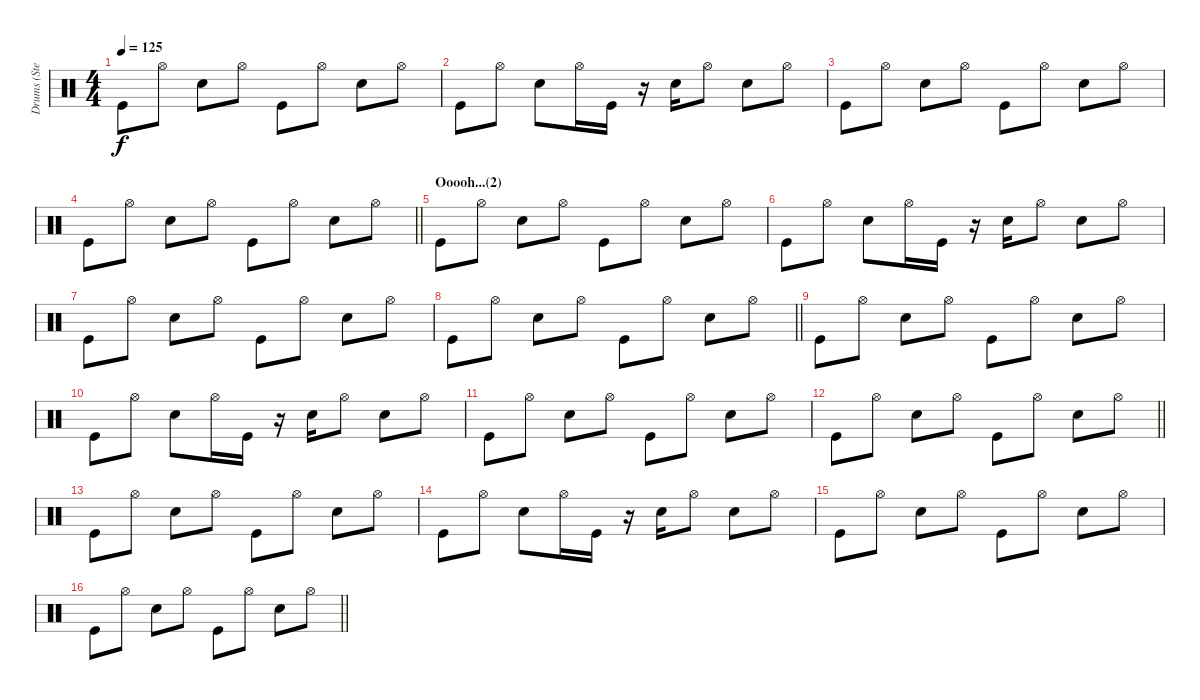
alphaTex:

\track ("Drums (Stephen Morris)" "Drums (Ste") {instrument percussion}
\staff {score}
\articulation defaults
\ts (4 4)
\tempo 125
\clef neutral
\ks c "Kick (hit)".8{dy f} "Hi-Hat (open)".8 "Electric Snare (hit)".8 "Hi-Hat (open)".8 "Kick (hit)".8 "Hi-Hat (open)".8 "Electric Snare (hit)".8 "Hi-Hat (open)".8
|
"Kick (hit)".8 "Hi-Hat (open)".8 "Electric Snare (hit)".8 "Hi-Hat (open)".16 "Kick (hit)".16 r.16 "Electric Snare (hit)".16 "Hi-Hat (open)".8 "Electric Snare (hit)".8 "Hi-Hat (open)".8 |
"Kick (hit)".8 "Hi-Hat (open)".8 "Electric Snare (hit)".8 "Hi-Hat (open)".8 "Kick (hit)".8 "Hi-Hat (open)".8 "Electric Snare (hit)".8 "Hi-Hat (open)".8 |
\barLineRight lightlight "Kick (hit)".8 "Hi-Hat (open)".8 "Electric Snare (hit)".8 "Hi-Hat (open)".8 "Kick (hit)".8 "Hi-Hat (open)".8 "Electric Snare (hit)".8 "Hi-Hat (open)".8
|
\section ("" "Ooooh...(2)")
"Kick (hit)".8 "Hi-Hat (open)".8 "Electric Snare (hit)".8 "Hi-Hat (open)".8 "Kick (hit)".8 "Hi-Hat (open)".8 "Electric Snare (hit)".8 "Hi-Hat (open)".8 |
"Kick (hit)".8 "Hi-Hat (open)".8 "Electric Snare (hit)".8 "Hi-Hat (open)".16 "Kick (hit)".16 r.16 "Electric Snare (hit)".16 "Hi-Hat (open)".8 "Electric Snare (hit)".8 "Hi-Hat (open)".8 |
"Kick (hit)".8 "Hi-Hat (open)".8 "Electric Snare (hit)".8 "Hi-Hat (open)".8 "Kick (hit)".8 "Hi-Hat (open)".8 "Electric Snare (hit)".8 "Hi-Hat (open)".8 |
\barLineRight lightlight "Kick (hit)".8 "Hi-Hat (open)".8 "Electric Snare (hit)".8 "Hi-Hat (open)".8 "Kick (hit)".8 "Hi-Hat (open)".8 "Electric Snare (hit)".8 "Hi-Hat (open)".8
|
"Kick (hit)".8 "Hi-Hat (open)".8 "Electric Snare (hit)".8 "Hi-Hat (open)".8 "Kick (hit)".8 "Hi-Hat (open)".8 "Electric Snare (hit)".8 "Hi-Hat (open)".8 |
"Kick (hit)".8 "Hi-Hat (open)".8 "Electric Snare (hit)".8 "Hi-Hat (open)".16 "Kick (hit)".16 r.16 "Electric Snare (hit)".16 "Hi-Hat (open)".8 "Electric Snare (hit)".8 "Hi-Hat (open)".8 |
"Kick (hit)".8 "Hi-Hat (open)".8 "Electric Snare (hit)".8 "Hi-Hat (open)".8 "Kick (hit)".8 "Hi-Hat (open)".8 "Electric Snare (hit)".8 "Hi-Hat (open)".8 |
\barLineRight lightlight "Kick (hit)".8 "Hi-Hat (open)".8 "Electric Snare (hit)".8 "Hi-Hat (open)".8 "Kick (hit)".8 "Hi-Hat (open)".8 "Electric Snare (hit)".8 "Hi-Hat (open)".8
|
"Kick (hit)".8 "Hi-Hat (open)".8 "Electric Snare (hit)".8 "Hi-Hat (open)".8 "Kick (hit)".8 "Hi-Hat (open)".8 "Electric Snare (hit)".8 "Hi-Hat (open)".8 |
"Kick (hit)".8 "Hi-Hat (open)".8 "Electric Snare (hit)".8 "Hi-Hat (open)".16 "Kick (hit)".16 r.16 "Electric Snare (hit)".16 "Hi-Hat (open)".8 "Electric Snare (hit)".8 "Hi-Hat (open)".8 |
"Kick (hit)".8 "Hi-Hat (open)".8 "Electric Snare (hit)".8 "Hi-Hat (open)".8 "Kick (hit)".8 "Hi-Hat (open)".8 "Electric Snare (hit)".8 "Hi-Hat (open)".8 |
\barLineRight lightlight "Kick (hit)".8 "Hi-Hat (open)".8 "Electric Snare (hit)".8 "Hi-Hat (open)".8 "Kick (hit)".8 "Hi-Hat (open)".8 "Electric Snare (hit)".8 "Hi-Hat (open)".8
